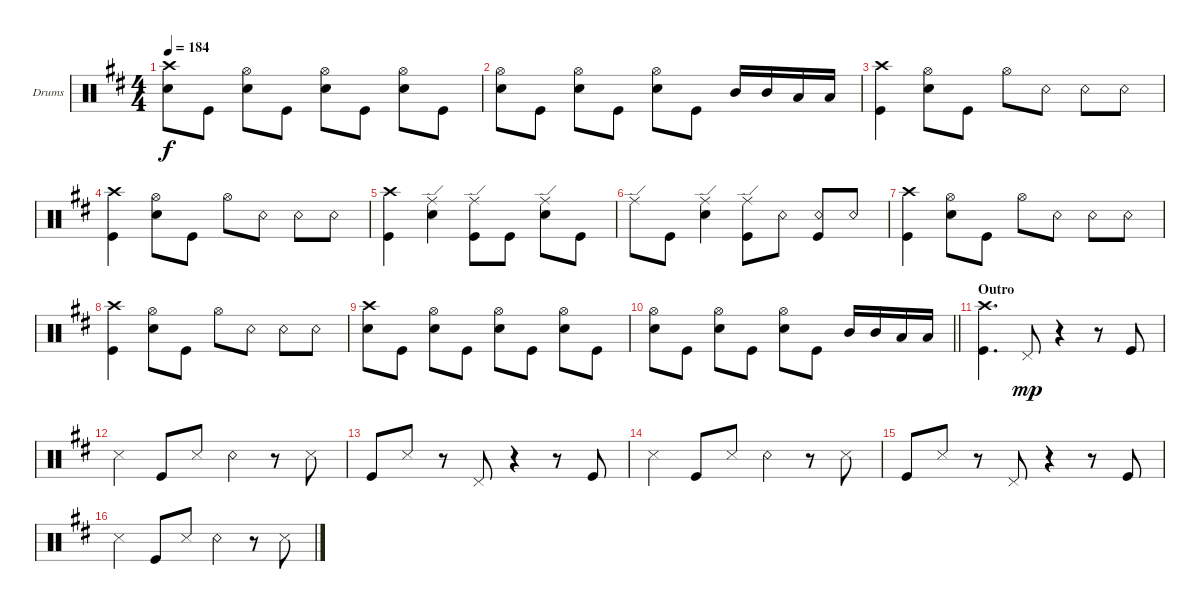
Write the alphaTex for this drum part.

\defaultSystemsLayout 4
\bracketExtendMode groupsimilarinstruments
\firstSystemTrackNameOrientation horizontal
\otherSystemsTrackNameOrientation horizontal
\track ("Drums" "Drums") {instrument percussion}
\staff {score}
\articulation defaults
\ts (4 4)
\tempo 184
\clef neutral
\ks d
("Snare (hit) 2" "Crash high (hit)").8{dy f} "Kick (hit)".8 ("Snare (hit) 2" "Hi-Hat (open)").8 "Kick (hit)".8 ("Snare (hit) 2" "Hi-Hat (open)").8 "Kick (hit)".8 ("Snare (hit) 2" "Hi-Hat (open)").8 "Kick (hit)".8 |
("Snare (hit) 2" "Hi-Hat (open)").8 "Kick (hit)".8 ("Snare (hit) 2" "Hi-Hat (open)").8 "Kick (hit)".8 ("Snare (hit) 2" "Hi-Hat (open)").8 "Kick (hit)".8 "Mid Tom (hit)".16 "Mid Tom (hit)".16 "Low Tom (hit)".16 "Low Tom (hit)".16 |
("Kick (hit)" "Crash high (hit)").4 ("Hi-Hat (open)" "Snare (hit) 2").8 "Kick (hit)".8 "Hi-Hat (open)".8 "Snare (rim shot)".8 "Snare (rim shot)".8 "Snare (rim shot)".8 |
("Kick (hit)" "Crash high (hit)").4 ("Hi-Hat (open)" "Snare (hit) 2").8 "Kick (hit)".8 "Hi-Hat (open)".8 "Snare (rim shot)".8 "Snare (rim shot)".8 "Snare (rim shot)".8 |
("Kick (hit)" "Crash high (hit)").4 ("Ride (edge)" "Snare (hit) 2").4 ("Kick (hit)" "Ride (edge)").8 "Kick (hit)".8 ("Snare (hit) 2" "Ride (edge)").8 "Kick (hit)".8 |
"Ride (edge)".8 "Kick (hit)".8 ("Snare (hit) 2" "Ride (edge)").4 ("Kick (hit)" "Ride (edge)").8 "Snare (rim shot)".8 ("Snare (rim shot)" "Kick (hit)").8 "Snare (rim shot)".8 |
("Kick (hit)" "Crash high (hit)").4 ("Hi-Hat (open)" "Snare (hit) 2").8 "Kick (hit)".8 "Hi-Hat (open)".8 "Snare (rim shot)".8 "Snare (rim shot)".8 "Snare (rim shot)".8 |
("Kick (hit)" "Crash high (hit)").4 ("Hi-Hat (open)" "Snare (hit) 2").8 "Kick (hit)".8 "Hi-Hat (open)".8 "Snare (rim shot)".8 "Snare (rim shot)".8 "Snare (rim shot)".8 |
("Snare (hit) 2" "Crash high (hit)").8 "Kick (hit)".8 ("Snare (hit) 2" "Hi-Hat (open)").8 "Kick (hit)".8 ("Snare (hit) 2" "Hi-Hat (open)").8 "Kick (hit)".8 ("Snare (hit) 2" "Hi-Hat (open)").8 "Kick (hit)".8 |
\barLineRight lightlight
("Snare (hit) 2" "Hi-Hat (open)").8 "Kick (hit)".8 ("Snare (hit) 2" "Hi-Hat (open)").8 "Kick (hit)".8 ("Snare (hit) 2" "Hi-Hat (open)").8 "Kick (hit)".8 "Mid Tom (hit)".16 "Mid Tom (hit)".16 "Low Tom (hit)".16 "Low Tom (hit)".16 |
\section ("" "Outro")
("Kick (hit)" "Crash high (hit)").4{d} "Pedal Hi-Hat (hit)".8{dy mp} r.4 r.8 "Kick (hit)".8 |
"Snare (side stick) 3".4 "Kick (hit)".8 "Snare (side stick) 3".8 "Snare (rim shot)".4 r.8 "Snare (side stick) 3".8 |
"Kick (hit)".8 "Snare (side stick) 3".8 r.8 "Pedal Hi-Hat (hit)".8 r.4 r.8 "Kick (hit)".8 |
"Snare (side stick) 3".4 "Kick (hit)".8 "Snare (side stick) 3".8 "Snare (rim shot)".4 r.8 "Snare (side stick) 3".8 |
"Kick (hit)".8 "Snare (side stick) 3".8 r.8 "Pedal Hi-Hat (hit)".8 r.4 r.8 "Kick (hit)".8 |
"Snare (side stick) 3".4 "Kick (hit)".8 "Snare (side stick) 3".8 "Snare (rim shot)".4 r.8 "Snare (side stick) 3".8
